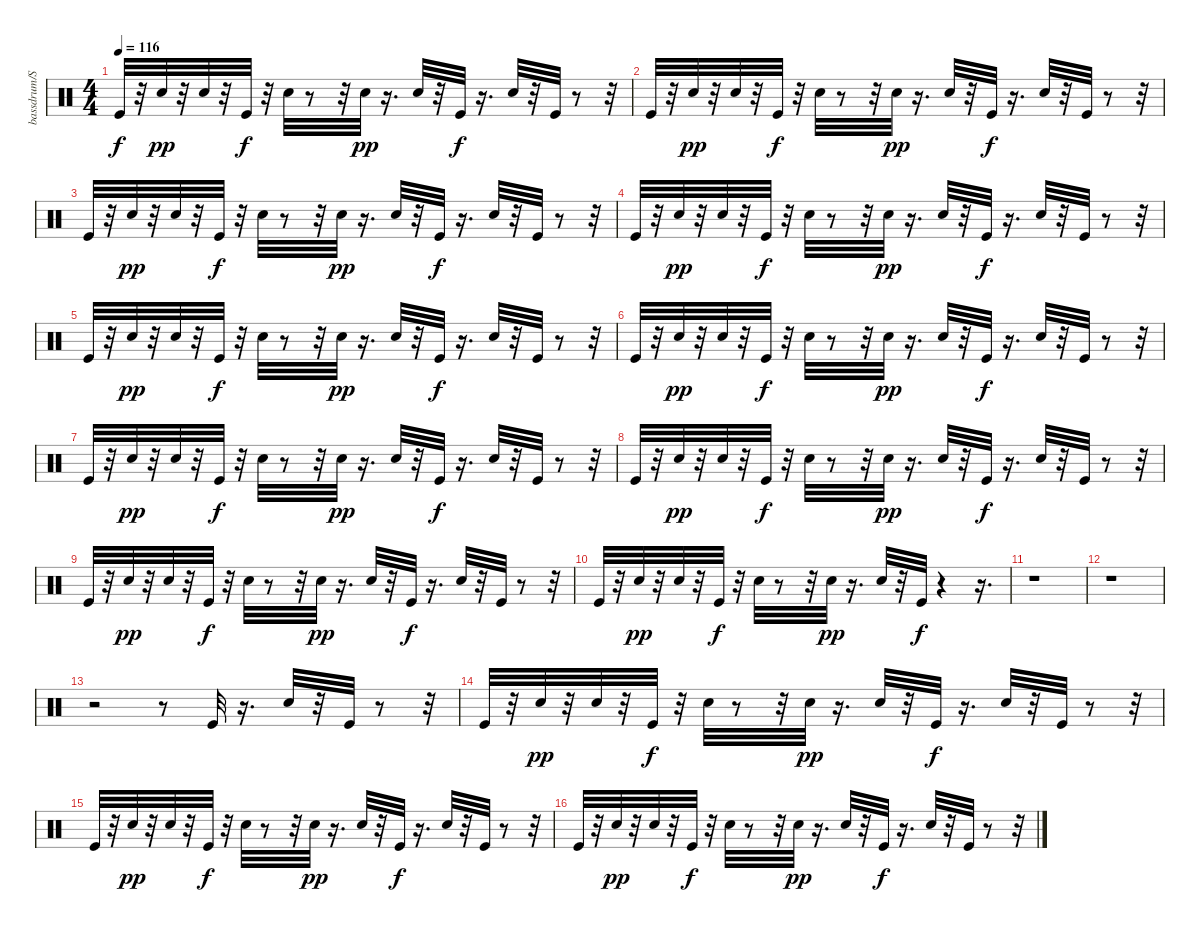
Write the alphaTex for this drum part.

\track ("bassdrum/SD" "bassdrum/S") {instrument percussion}
\staff {score}
\articulation defaults
\ts (4 4)
\tempo 116
\clef neutral
\ks c "Kick (hit)".32{dy f}
r.32 "Snare (hit) 2".32{dy pp} r.32 "Snare (hit) 2".32 r.32 "Kick (hit)".32{dy f} r.32 "Electric Snare (hit)".32 r.8 r.32 "Snare (hit) 2".32{dy pp} r.16{d} "Snare (hit) 2".32 r.32 "Kick (hit)".32{dy f} r.16{d} "Electric Snare (hit)".32 r.32 "Kick (hit)".32 r.8 r.32 |
"Kick (hit)".32 r.32 "Snare (hit) 2".32{dy pp} r.32 "Snare (hit) 2".32 r.32 "Kick (hit)".32{dy f} r.32 "Electric Snare (hit)".32 r.8 r.32 "Snare (hit) 2".32{dy pp} r.16{d} "Snare (hit) 2".32 r.32 "Kick (hit)".32{dy f} r.16{d} "Electric Snare (hit)".32 r.32 "Kick (hit)".32 r.8 r.32 |
"Kick (hit)".32 r.32 "Snare (hit) 2".32{dy pp} r.32 "Snare (hit) 2".32 r.32 "Kick (hit)".32{dy f} r.32 "Electric Snare (hit)".32 r.8 r.32 "Snare (hit) 2".32{dy pp} r.16{d} "Snare (hit) 2".32 r.32 "Kick (hit)".32{dy f} r.16{d} "Electric Snare (hit)".32 r.32 "Kick (hit)".32 r.8 r.32 |
"Kick (hit)".32 r.32 "Snare (hit) 2".32{dy pp} r.32 "Snare (hit) 2".32 r.32 "Kick (hit)".32{dy f} r.32 "Electric Snare (hit)".32 r.8 r.32 "Snare (hit) 2".32{dy pp} r.16{d} "Snare (hit) 2".32 r.32 "Kick (hit)".32{dy f} r.16{d} "Electric Snare (hit)".32 r.32 "Kick (hit)".32 r.8 r.32 |
"Kick (hit)".32 r.32 "Snare (hit) 2".32{dy pp} r.32 "Snare (hit) 2".32 r.32 "Kick (hit)".32{dy f} r.32 "Electric Snare (hit)".32 r.8 r.32 "Snare (hit) 2".32{dy pp} r.16{d} "Snare (hit) 2".32 r.32 "Kick (hit)".32{dy f} r.16{d} "Electric Snare (hit)".32 r.32 "Kick (hit)".32 r.8 r.32 |
"Kick (hit)".32 r.32 "Snare (hit) 2".32{dy pp} r.32 "Snare (hit) 2".32 r.32 "Kick (hit)".32{dy f} r.32 "Electric Snare (hit)".32 r.8 r.32 "Snare (hit) 2".32{dy pp} r.16{d} "Snare (hit) 2".32 r.32 "Kick (hit)".32{dy f} r.16{d} "Electric Snare (hit)".32 r.32 "Kick (hit)".32 r.8 r.32 |
"Kick (hit)".32 r.32 "Snare (hit) 2".32{dy pp} r.32 "Snare (hit) 2".32 r.32 "Kick (hit)".32{dy f} r.32 "Electric Snare (hit)".32 r.8 r.32 "Snare (hit) 2".32{dy pp} r.16{d} "Snare (hit) 2".32 r.32 "Kick (hit)".32{dy f} r.16{d} "Electric Snare (hit)".32 r.32 "Kick (hit)".32 r.8 r.32 |
"Kick (hit)".32 r.32 "Snare (hit) 2".32{dy pp} r.32 "Snare (hit) 2".32 r.32 "Kick (hit)".32{dy f} r.32 "Electric Snare (hit)".32 r.8 r.32 "Snare (hit) 2".32{dy pp} r.16{d} "Snare (hit) 2".32 r.32 "Kick (hit)".32{dy f} r.16{d} "Electric Snare (hit)".32 r.32 "Kick (hit)".32 r.8 r.32 |
"Kick (hit)".32 r.32 "Snare (hit) 2".32{dy pp} r.32 "Snare (hit) 2".32 r.32 "Kick (hit)".32{dy f} r.32 "Electric Snare (hit)".32 r.8 r.32 "Snare (hit) 2".32{dy pp} r.16{d} "Snare (hit) 2".32 r.32 "Kick (hit)".32{dy f} r.16{d} "Electric Snare (hit)".32 r.32 "Kick (hit)".32 r.8 r.32 |
"Kick (hit)".32 r.32 "Snare (hit) 2".32{dy pp} r.32 "Snare (hit) 2".32 r.32 "Kick (hit)".32{dy f} r.32 "Electric Snare (hit)".32 r.8 r.32 "Snare (hit) 2".32{dy pp} r.16{d} "Snare (hit) 2".32 r.32 "Kick (hit)".32{dy f} r.4 r.16{d} |
r.1 |
r.1 |
r.2 r.8 "Kick (hit)".32 r.16{d} "Electric Snare (hit)".32 r.32 "Kick (hit)".32 r.8 r.32 |
"Kick (hit)".32 r.32 "Snare (hit) 2".32{dy pp} r.32 "Snare (hit) 2".32 r.32 "Kick (hit)".32{dy f} r.32 "Electric Snare (hit)".32 r.8 r.32 "Snare (hit) 2".32{dy pp} r.16{d} "Snare (hit) 2".32 r.32 "Kick (hit)".32{dy f} r.16{d} "Electric Snare (hit)".32 r.32 "Kick (hit)".32 r.8 r.32 |
"Kick (hit)".32 r.32 "Snare (hit) 2".32{dy pp} r.32 "Snare (hit) 2".32 r.32 "Kick (hit)".32{dy f} r.32 "Electric Snare (hit)".32 r.8 r.32 "Snare (hit) 2".32{dy pp} r.16{d} "Snare (hit) 2".32 r.32 "Kick (hit)".32{dy f} r.16{d} "Electric Snare (hit)".32 r.32 "Kick (hit)".32 r.8 r.32 |
"Kick (hit)".32 r.32 "Snare (hit) 2".32{dy pp} r.32 "Snare (hit) 2".32 r.32 "Kick (hit)".32{dy f} r.32 "Electric Snare (hit)".32 r.8 r.32 "Snare (hit) 2".32{dy pp} r.16{d} "Snare (hit) 2".32 r.32 "Kick (hit)".32{dy f} r.16{d} "Electric Snare (hit)".32 r.32 "Kick (hit)".32 r.8 r.32
